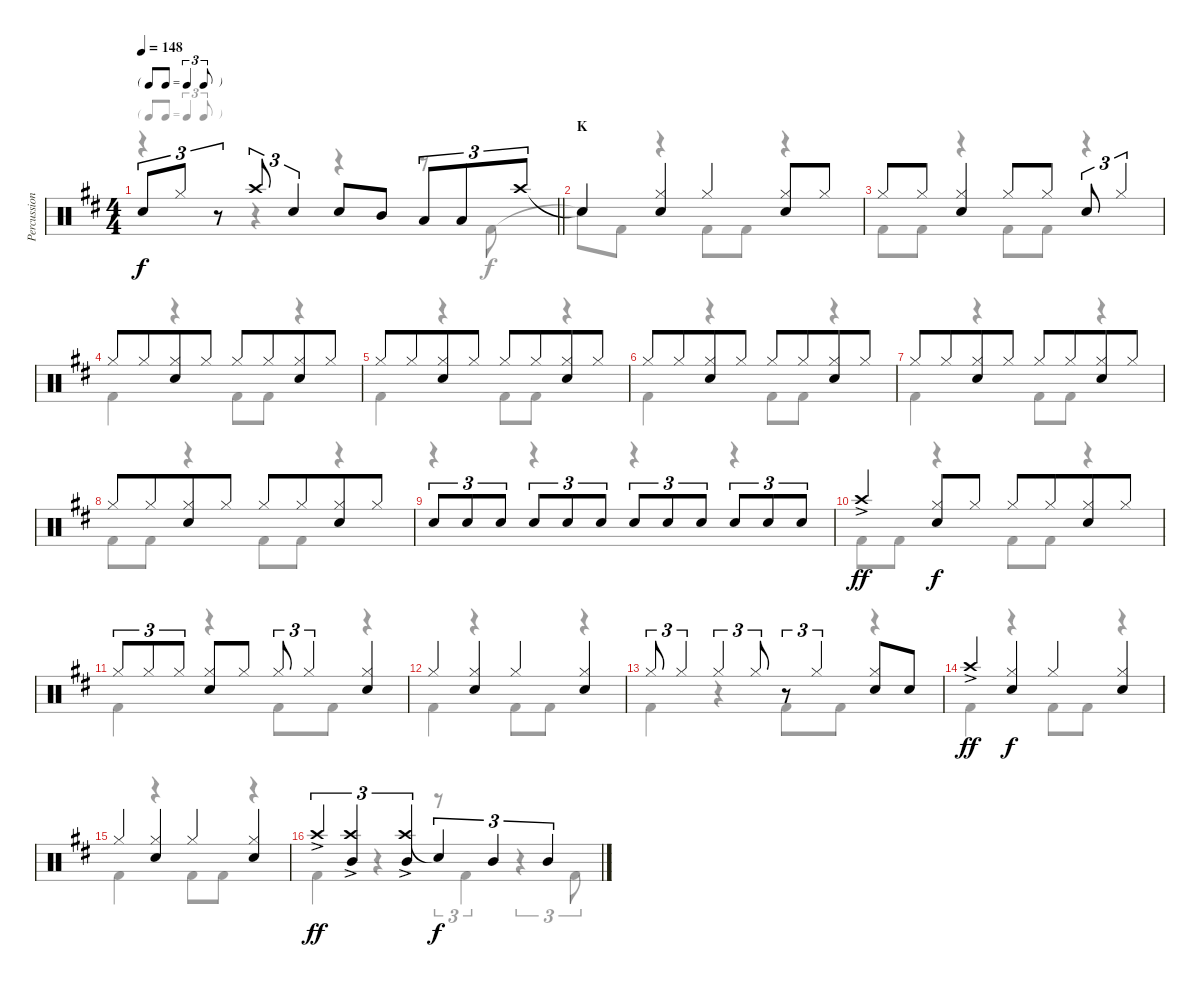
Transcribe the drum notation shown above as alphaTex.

\track ("Percussion" "Percussion") {instrument percussion}
\staff {score}
\articulation defaults
\voice
\ts (4 4)
\tf triplet8th
\tempo 148
\clef neutral
\barLineRight lightlight
\ks bminor "Snare (hit) 2".8{tu (3 2) dy f} "Hi-Hat (closed)".8{tu (3 2)}
r.8{tu (3 2)} "Crash high (hit)".8{tu (3 2)} "Snare (hit) 2".4{tu (3 2)} "Snare (hit) 2".8 "Mid Tom (hit)".8 "Low Tom (hit)".8{tu (3 2)} "Low Tom (hit)".8{tu (3 2)} "Crash high (hit)".8{tu (3 2)} |
\section ("" "K")
"Snare (hit)"{t}.4 ("Hi-Hat (closed)" "Snare (hit) 2").4 "Hi-Hat (closed)".4 ("Hi-Hat (closed)" "Snare (hit) 2").8 "Hi-Hat (closed)".8 |
"Hi-Hat (closed)".8 "Hi-Hat (closed)".8 ("Hi-Hat (closed)" "Snare (hit) 2").4 "Hi-Hat (closed)".8 "Hi-Hat (closed)".8 "Snare (hit) 2".8{tu (3 2)} "Hi-Hat (closed)".4{tu (3 2)} |
"Hi-Hat (closed)".8 "Hi-Hat (closed)".8{beam merge} ("Hi-Hat (closed)" "Snare (hit) 2").8 "Hi-Hat (closed)".8 "Hi-Hat (closed)".8 "Hi-Hat (closed)".8{beam merge} ("Hi-Hat (closed)" "Snare (hit) 2").8 "Hi-Hat (closed)".8 |
"Hi-Hat (closed)".8 "Hi-Hat (closed)".8{beam merge} ("Hi-Hat (closed)" "Snare (hit) 2").8 "Hi-Hat (closed)".8 "Hi-Hat (closed)".8 "Hi-Hat (closed)".8{beam merge} ("Hi-Hat (closed)" "Snare (hit) 2").8 "Hi-Hat (closed)".8 |
"Hi-Hat (closed)".8 "Hi-Hat (closed)".8{beam merge} ("Hi-Hat (closed)" "Snare (hit) 2").8 "Hi-Hat (closed)".8 "Hi-Hat (closed)".8 "Hi-Hat (closed)".8{beam merge} ("Hi-Hat (closed)" "Snare (hit) 2").8 "Hi-Hat (closed)".8 |
"Hi-Hat (closed)".8 "Hi-Hat (closed)".8{beam merge} ("Hi-Hat (closed)" "Snare (hit) 2").8 "Hi-Hat (closed)".8 "Hi-Hat (closed)".8 "Hi-Hat (closed)".8{beam merge} ("Hi-Hat (closed)" "Snare (hit) 2").8 "Hi-Hat (closed)".8 |
"Hi-Hat (closed)".8 "Hi-Hat (closed)".8{beam merge} ("Hi-Hat (closed)" "Snare (hit) 2").8 "Hi-Hat (closed)".8 "Hi-Hat (closed)".8 "Hi-Hat (closed)".8{beam merge} ("Hi-Hat (closed)" "Snare (hit) 2").8 "Hi-Hat (closed)".8 |
"Snare (hit) 2".8{tu (3 2)} "Snare (hit) 2".8{tu (3 2)} "Snare (hit) 2".8{tu (3 2)} "Snare (hit) 2".8{tu (3 2)} "Snare (hit) 2".8{tu (3 2)} "Snare (hit) 2".8{tu (3 2)} "Snare (hit) 2".8{tu (3 2)} "Snare (hit) 2".8{tu (3 2)} "Snare (hit) 2".8{tu (3 2)} "Snare (hit) 2".8{tu (3 2)} "Snare (hit) 2".8{tu (3 2)} "Snare (hit) 2".8{tu (3 2)} |
"Crash high (hit)"{ac}.4{dy ff} ("Hi-Hat (closed)" "Snare (hit) 2").8{dy f} "Hi-Hat (closed)".8 "Hi-Hat (closed)".8 "Hi-Hat (closed)".8{beam merge} ("Hi-Hat (closed)" "Snare (hit) 2").8 "Hi-Hat (closed)".8 |
"Hi-Hat (closed)".8{tu (3 2)} "Hi-Hat (closed)".8{tu (3 2)} "Hi-Hat (closed)".8{tu (3 2)} ("Hi-Hat (closed)" "Snare (hit) 2").8 "Hi-Hat (closed)".8 "Hi-Hat (closed)".8{tu (3 2)} "Hi-Hat (closed)".4{tu (3 2)} ("Hi-Hat (closed)" "Snare (hit) 2").4 |
"Hi-Hat (closed)".4{volume 6} ("Hi-Hat (closed)" "Snare (hit) 2").4 "Hi-Hat (closed)".4 ("Hi-Hat (closed)" "Snare (hit) 2").4 |
"Hi-Hat (closed)".8{tu (3 2)} "Hi-Hat (closed)".4{tu (3 2)} "Hi-Hat (closed)".4{tu (3 2)} "Hi-Hat (closed)".8{tu (3 2)} r.8{tu (3 2)} "Hi-Hat (closed)".4{tu (3 2)} ("Hi-Hat (closed)" "Snare (hit) 2").8 "Snare (hit) 2".8 |
"Crash high (hit)"{ac}.4{dy ff} ("Hi-Hat (closed)" "Snare (hit) 2").4{dy f} "Hi-Hat (closed)".4 ("Hi-Hat (closed)" "Snare (hit) 2").4 |
"Hi-Hat (closed)".4 ("Hi-Hat (closed)" "Snare (hit) 2").4 "Hi-Hat (closed)".4 ("Hi-Hat (closed)" "Snare (hit) 2").4 |
"Crash high (hit)"{ac}.4{tu (3 2) dy ff volume 3} ("Crash high (hit)" "Mid Tom (hit)"{ac}).4{tu (3 2)} ("Crash high (hit)" "Mid Tom (hit)"{ac}).4{tu (3 2)} "Snare (hit)"{t}.4{tu (3 2) dy f} "Mid Tom (hit)".4{tu (3 2)} "Mid Tom (hit)".4{tu (3 2)}
\voice
\clef neutral
\ottava regular
\simile none
\barLineRight lightlight
\ks bminor
r.4{dy f} r.4 r.4 r.8 "Kick (hit) 2".8 |
"Snare (hit)"{t}.8 "Kick (hit) 2".8 r.4 "Kick (hit) 2".8 "Kick (hit) 2".8 r.4 |
"Kick (hit) 2".8 "Kick (hit) 2".8 r.4 "Kick (hit) 2".8 "Kick (hit) 2".8 r.4 |
"Kick (hit) 2".4 r.4 "Kick (hit) 2".8 "Kick (hit) 2".8 r.4 |
"Kick (hit) 2".4 r.4 "Kick (hit) 2".8 "Kick (hit) 2".8 r.4 |
"Kick (hit) 2".4 r.4 "Kick (hit) 2".8 "Kick (hit) 2".8 r.4 |
"Kick (hit) 2".4 r.4 "Kick (hit) 2".8 "Kick (hit) 2".8 r.4 |
"Kick (hit) 2".8 "Kick (hit) 2".8 r.4 "Kick (hit) 2".8 "Kick (hit) 2".8 r.4 |
r.4 r.4 r.4 r.4 |
"Kick (hit) 2".8 "Kick (hit) 2".8 r.4 "Kick (hit) 2".8 "Kick (hit) 2".8 r.4 |
"Kick (hit) 2".4 r.4 "Kick (hit) 2".8 "Kick (hit) 2".8 r.4 |
"Kick (hit) 2".4 r.4 "Kick (hit) 2".8 "Kick (hit) 2".8 r.4 |
"Kick (hit) 2".4 r.4 "Kick (hit) 2".8 "Kick (hit) 2".8 r.4 |
"Kick (hit) 2".4 r.4 "Kick (hit) 2".8 "Kick (hit) 2".8 r.4 |
"Kick (hit) 2".4 r.4 "Kick (hit) 2".8 "Kick (hit) 2".8 r.4 |
"Kick (hit) 2".4 r.4 r.8{tu (3 2)} "Kick (hit) 2".4{tu (3 2)} r.4{tu (3 2)} "Kick (hit) 2".8{tu (3 2)}
